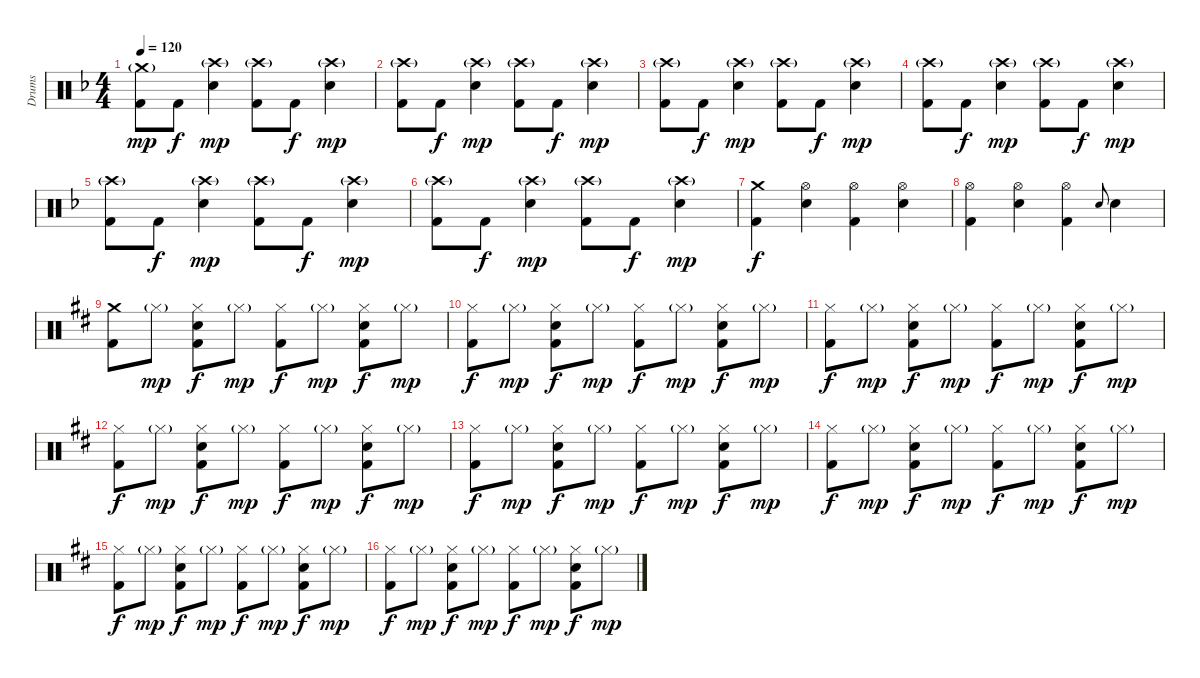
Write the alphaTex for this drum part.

\track ("Drums" "Drums") {instrument percussion}
\staff {score}
\articulation defaults
\ts (4 4)
\tempo 120
\clef neutral
\ks dminor
("Crash medium (hit)"{g} "Kick (hit) 2").8{dy mp} "Kick (hit) 2".8{dy f} ("Crash high (hit)"{g} "Snare (hit) 2").4{dy mp} ("Crash high (hit)"{g} "Kick (hit) 2").8 "Kick (hit) 2".8{dy f} ("Crash high (hit)"{g} "Snare (hit) 2").4{dy mp} |
("Crash high (hit)"{g} "Kick (hit) 2").8 "Kick (hit) 2".8{dy f} ("Crash high (hit)"{g} "Snare (hit) 2").4{dy mp} ("Crash high (hit)"{g} "Kick (hit) 2").8 "Kick (hit) 2".8{dy f} ("Crash high (hit)"{g} "Snare (hit) 2").4{dy mp} |
("Crash high (hit)"{g} "Kick (hit) 2").8 "Kick (hit) 2".8{dy f} ("Crash high (hit)"{g} "Snare (hit) 2").4{dy mp} ("Crash high (hit)"{g} "Kick (hit) 2").8 "Kick (hit) 2".8{dy f} ("Crash high (hit)"{g} "Snare (hit) 2").4{dy mp} |
("Crash high (hit)"{g} "Kick (hit) 2").8 "Kick (hit) 2".8{dy f} ("Crash high (hit)"{g} "Snare (hit) 2").4{dy mp} ("Crash high (hit)"{g} "Kick (hit) 2").8 "Kick (hit) 2".8{dy f} ("Crash high (hit)"{g} "Snare (hit) 2").4{dy mp} |
("Crash high (hit)"{g} "Kick (hit) 2").8 "Kick (hit) 2".8{dy f} ("Crash high (hit)"{g} "Snare (hit) 2").4{dy mp} ("Crash high (hit)"{g} "Kick (hit) 2").8 "Kick (hit) 2".8{dy f} ("Crash high (hit)"{g} "Snare (hit) 2").4{dy mp} |
("Crash high (hit)"{g} "Kick (hit) 2").8 "Kick (hit) 2".8{dy f} ("Crash high (hit)"{g} "Snare (hit) 2").4{dy mp} ("Crash high (hit)"{g} "Kick (hit) 2").8 "Kick (hit) 2".8{dy f} ("Crash high (hit)"{g} "Snare (hit) 2").4{dy mp} |
("Crash medium (hit)" "Kick (hit) 2").4{dy f} ("Hi-Hat (open)" "Snare (hit) 2").4 ("Hi-Hat (open)" "Kick (hit) 2").4 ("Hi-Hat (open)" "Snare (hit) 2").4 |
("Hi-Hat (open)" "Kick (hit) 2").4 ("Hi-Hat (open)" "Snare (hit) 2").4 ("Hi-Hat (open)" "Kick (hit) 2").4 "Snare (hit) 2".8{gr onbeat} "Snare (hit) 2".4 |
\ks bminor
("Crash medium (hit)" "Kick (hit) 2").8 "Hi-Hat (closed)"{g}.8{dy mp} ("Hi-Hat (closed)" "Snare (hit) 2" "Kick (hit) 2").8{dy f} "Hi-Hat (closed)"{g}.8{dy mp} ("Hi-Hat (closed)" "Kick (hit) 2").8{dy f} "Hi-Hat (closed)"{g}.8{dy mp} ("Hi-Hat (closed)" "Snare (hit) 2" "Kick (hit) 2").8{dy f} "Hi-Hat (closed)"{g}.8{dy mp} |
("Hi-Hat (closed)" "Kick (hit) 2").8{dy f} "Hi-Hat (closed)"{g}.8{dy mp} ("Hi-Hat (closed)" "Snare (hit) 2" "Kick (hit) 2").8{dy f} "Hi-Hat (closed)"{g}.8{dy mp} ("Hi-Hat (closed)" "Kick (hit) 2").8{dy f} "Hi-Hat (closed)"{g}.8{dy mp} ("Hi-Hat (closed)" "Snare (hit) 2" "Kick (hit) 2").8{dy f} "Hi-Hat (closed)"{g}.8{dy mp} |
("Hi-Hat (closed)" "Kick (hit) 2").8{dy f} "Hi-Hat (closed)"{g}.8{dy mp} ("Hi-Hat (closed)" "Snare (hit) 2" "Kick (hit) 2").8{dy f} "Hi-Hat (closed)"{g}.8{dy mp} ("Hi-Hat (closed)" "Kick (hit) 2").8{dy f} "Hi-Hat (closed)"{g}.8{dy mp} ("Hi-Hat (closed)" "Snare (hit) 2" "Kick (hit) 2").8{dy f} "Hi-Hat (closed)"{g}.8{dy mp} |
("Hi-Hat (closed)" "Kick (hit) 2").8{dy f} "Hi-Hat (closed)"{g}.8{dy mp} ("Hi-Hat (closed)" "Snare (hit) 2" "Kick (hit) 2").8{dy f} "Hi-Hat (closed)"{g}.8{dy mp} ("Hi-Hat (closed)" "Kick (hit) 2").8{dy f} "Hi-Hat (closed)"{g}.8{dy mp} ("Hi-Hat (closed)" "Snare (hit) 2" "Kick (hit) 2").8{dy f} "Hi-Hat (closed)"{g}.8{dy mp} |
("Hi-Hat (closed)" "Kick (hit) 2").8{dy f} "Hi-Hat (closed)"{g}.8{dy mp} ("Hi-Hat (closed)" "Snare (hit) 2" "Kick (hit) 2").8{dy f} "Hi-Hat (closed)"{g}.8{dy mp} ("Hi-Hat (closed)" "Kick (hit) 2").8{dy f} "Hi-Hat (closed)"{g}.8{dy mp} ("Hi-Hat (closed)" "Snare (hit) 2" "Kick (hit) 2").8{dy f} "Hi-Hat (closed)"{g}.8{dy mp} |
("Hi-Hat (closed)" "Kick (hit) 2").8{dy f} "Hi-Hat (closed)"{g}.8{dy mp} ("Hi-Hat (closed)" "Snare (hit) 2" "Kick (hit) 2").8{dy f} "Hi-Hat (closed)"{g}.8{dy mp} ("Hi-Hat (closed)" "Kick (hit) 2").8{dy f} "Hi-Hat (closed)"{g}.8{dy mp} ("Hi-Hat (closed)" "Snare (hit) 2" "Kick (hit) 2").8{dy f} "Hi-Hat (closed)"{g}.8{dy mp} |
("Hi-Hat (closed)" "Kick (hit) 2").8{dy f} "Hi-Hat (closed)"{g}.8{dy mp} ("Hi-Hat (closed)" "Snare (hit) 2" "Kick (hit) 2").8{dy f} "Hi-Hat (closed)"{g}.8{dy mp} ("Hi-Hat (closed)" "Kick (hit) 2").8{dy f} "Hi-Hat (closed)"{g}.8{dy mp} ("Hi-Hat (closed)" "Snare (hit) 2" "Kick (hit) 2").8{dy f} "Hi-Hat (closed)"{g}.8{dy mp} |
("Hi-Hat (closed)" "Kick (hit) 2").8{dy f} "Hi-Hat (closed)"{g}.8{dy mp} ("Hi-Hat (closed)" "Snare (hit) 2" "Kick (hit) 2").8{dy f} "Hi-Hat (closed)"{g}.8{dy mp} ("Hi-Hat (closed)" "Kick (hit) 2").8{dy f} "Hi-Hat (closed)"{g}.8{dy mp} ("Hi-Hat (closed)" "Snare (hit) 2" "Kick (hit) 2").8{dy f} "Hi-Hat (closed)"{g}.8{dy mp}
